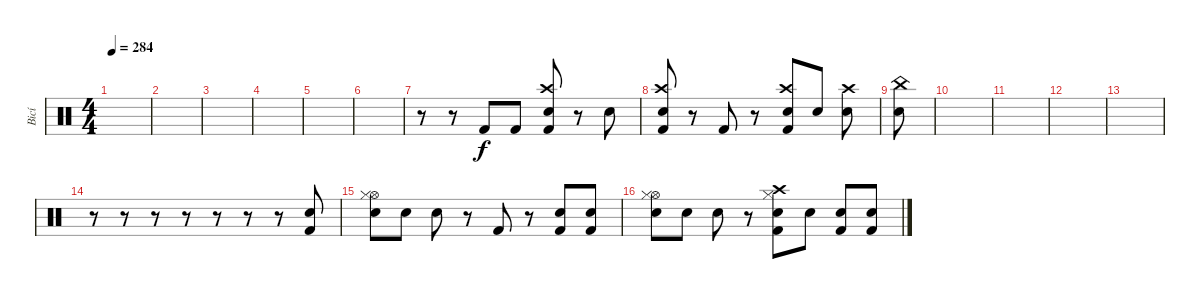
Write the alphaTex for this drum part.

\track ("Bicí" "Bicí") {instrument percussion}
\staff {score}
\articulation defaults
\ts (4 4)
\tempo 284
\clef neutral
\ks c
|
|
|
|
|
|
r.8 r.8 "Kick (hit) 2".8 "Kick (hit) 2".8 ("Crash high (hit)" "Electric Snare (hit)" "Kick (hit) 2").8 r.8 "Electric Snare (hit)".8 |
("Crash high (hit)" "Electric Snare (hit)" "Kick (hit) 2").8 r.8 "Kick (hit) 2".8 r.8 ("Crash high (hit)" "Electric Snare (hit)" "Kick (hit) 2").8 "Electric Snare (hit)".8 ("Crash high (hit)" "Electric Snare (hit)").8 |
("China (hit)" "Electric Snare (hit)").8 |
|
|
|
|
r.8 r.8 r.8 r.8 r.8 r.8 r.8 ("Electric Snare (hit)" "Kick (hit) 2").8 |
("Hi-Hat (open)" "Hi-Hat (closed)" "Electric Snare (hit)").8 "Electric Snare (hit)".8 "Electric Snare (hit)".8 r.8 "Kick (hit) 2".8 r.8 ("Electric Snare (hit)" "Kick (hit) 2").8 ("Electric Snare (hit)" "Kick (hit) 2").8 |
("Hi-Hat (open)" "Hi-Hat (closed)" "Electric Snare (hit)").8 "Electric Snare (hit)".8 "Electric Snare (hit)".8 r.8 ("Crash high (hit)" "Hi-Hat (closed)" "Electric Snare (hit)" "Kick (hit) 2").8 "Electric Snare (hit)".8 ("Electric Snare (hit)" "Kick (hit) 2").8 ("Electric Snare (hit)" "Kick (hit) 2").8
